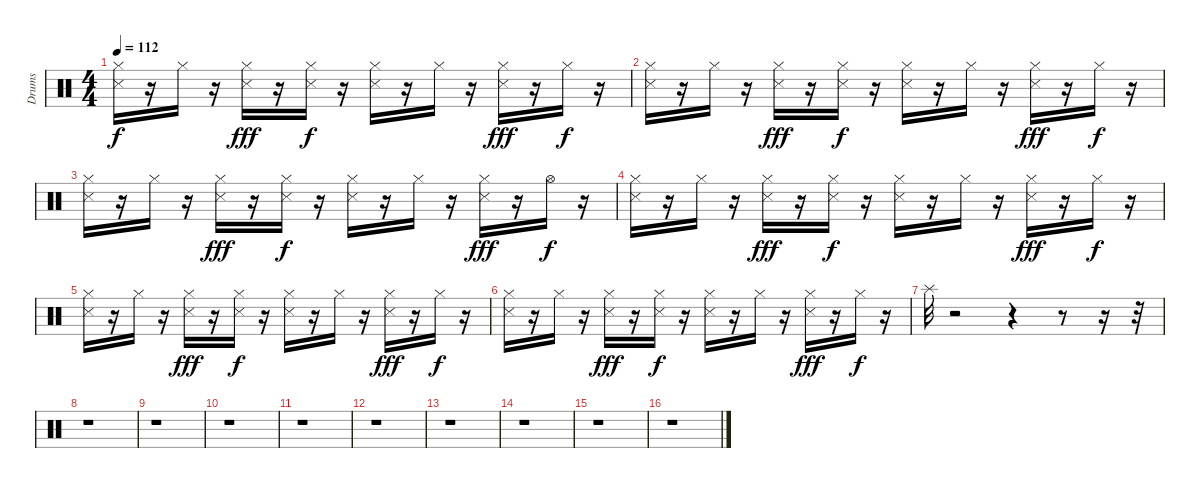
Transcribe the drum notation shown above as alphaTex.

\track ("Drums" "Drums") {instrument percussion}
\staff {score}
\articulation defaults
\ts (4 4)
\tempo 112
\clef neutral
\ks c
("Metronome (hit)" "Hi-Hat (closed)").16{dy f} r.16 "Hi-Hat (closed)".16 r.16 ("Hi-Hat (closed)" "Snare (side stick) 3").16{dy fff} r.16 ("Metronome (hit)" "Hi-Hat (closed)").16{dy f} r.16 ("Hi-Hat (closed)" "Metronome (hit)").16 r.16 "Hi-Hat (closed)".16 r.16 ("Hi-Hat (closed)" "Snare (side stick) 3").16{dy fff} r.16 "Hi-Hat (closed)".16{dy f} r.16 |
("Hi-Hat (closed)" "Metronome (hit)").16 r.16 "Hi-Hat (closed)".16 r.16 ("Snare (side stick) 3" "Hi-Hat (closed)").16{dy fff} r.16 ("Metronome (hit)" "Hi-Hat (closed)").16{dy f} r.16 ("Hi-Hat (closed)" "Metronome (hit)").16 r.16 "Hi-Hat (closed)".16 r.16 ("Hi-Hat (closed)" "Snare (side stick) 3").16{dy fff} r.16 "Hi-Hat (closed)".16{dy f} r.16 |
("Metronome (hit)" "Hi-Hat (closed)").16 r.16 "Hi-Hat (closed)".16 r.16 ("Snare (side stick) 3" "Hi-Hat (closed)").16{dy fff} r.16 ("Hi-Hat (closed)" "Metronome (hit)").16{dy f} r.16 ("Metronome (hit)" "Hi-Hat (closed)").16 r.16 "Hi-Hat (closed)".16 r.16 ("Snare (side stick) 3" "Hi-Hat (closed)").16{dy fff} r.16 "Hi-Hat (open)".16{dy f} r.16 |
("Hi-Hat (closed)" "Metronome (hit)").16 r.16 "Hi-Hat (closed)".16 r.16 ("Hi-Hat (closed)" "Snare (side stick) 3").16{dy fff} r.16 ("Metronome (hit)" "Hi-Hat (closed)").16{dy f} r.16 ("Metronome (hit)" "Hi-Hat (closed)").16 r.16 "Hi-Hat (closed)".16 r.16 ("Snare (side stick) 3" "Hi-Hat (closed)").16{dy fff} r.16 "Hi-Hat (closed)".16{dy f} r.16 |
("Metronome (hit)" "Hi-Hat (closed)").16 r.16 "Hi-Hat (closed)".16 r.16 ("Hi-Hat (closed)" "Snare (side stick) 3").16{dy fff} r.16 ("Metronome (hit)" "Hi-Hat (closed)").16{dy f} r.16 ("Hi-Hat (closed)" "Metronome (hit)").16 r.16 "Hi-Hat (closed)".16 r.16 ("Snare (side stick) 3" "Hi-Hat (closed)").16{dy fff} r.16 "Hi-Hat (closed)".16{dy f} r.16 |
("Hi-Hat (closed)" "Metronome (hit)").16 r.16 "Hi-Hat (closed)".16 r.16 ("Hi-Hat (closed)" "Snare (side stick) 3").16{dy fff} r.16 ("Hi-Hat (closed)" "Metronome (hit)").16{dy f} r.16 ("Hi-Hat (closed)" "Metronome (hit)").16 r.16 "Hi-Hat (closed)".16 r.16 ("Snare (side stick) 3" "Hi-Hat (closed)").16{dy fff} r.16 "Hi-Hat (closed)".16{dy f} r.16 |
"Splash (hit)".32 r.2 r.4 r.8 r.16 r.32 |
r.1 |
r.1 |
r.1 |
r.1 |
r.1 |
r.1 |
r.1 |
r.1 |
r.1
